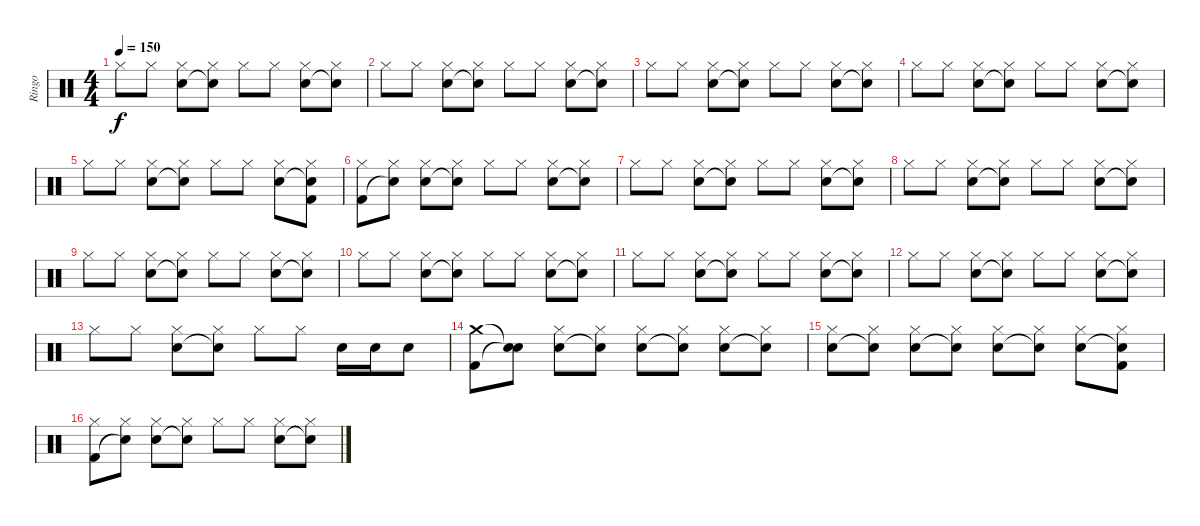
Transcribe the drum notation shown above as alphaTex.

\track ("Ringo" "Ringo") {instrument percussion}
\staff {score}
\articulation defaults
\ts (4 4)
\tempo 150
\clef neutral
\ks c "Hi-Hat (closed)".8{dy f} "Hi-Hat (closed)".8
("Hi-Hat (closed)" "Snare (hit) 2").8 ("Hi-Hat (closed)" "Snare (hit)"{t}).8 "Hi-Hat (closed)".8 "Hi-Hat (closed)".8 ("Hi-Hat (closed)" "Snare (hit) 2").8 ("Hi-Hat (closed)" "Snare (hit)"{t}).8 |
"Hi-Hat (closed)".8 "Hi-Hat (closed)".8 ("Hi-Hat (closed)" "Snare (hit) 2").8 ("Hi-Hat (closed)" "Snare (hit)"{t}).8 "Hi-Hat (closed)".8 "Hi-Hat (closed)".8 ("Hi-Hat (closed)" "Snare (hit) 2").8 ("Hi-Hat (closed)" "Snare (hit)"{t}).8 |
"Hi-Hat (closed)".8 "Hi-Hat (closed)".8 ("Hi-Hat (closed)" "Snare (hit) 2").8 ("Hi-Hat (closed)" "Snare (hit)"{t}).8 "Hi-Hat (closed)".8 "Hi-Hat (closed)".8 ("Hi-Hat (closed)" "Snare (hit) 2").8 ("Hi-Hat (closed)" "Snare (hit)"{t}).8 |
"Hi-Hat (closed)".8 "Hi-Hat (closed)".8 ("Hi-Hat (closed)" "Snare (hit) 2").8 ("Hi-Hat (closed)" "Snare (hit)"{t}).8 "Hi-Hat (closed)".8 "Hi-Hat (closed)".8 ("Hi-Hat (closed)" "Snare (hit) 2").8 ("Hi-Hat (closed)" "Snare (hit)"{t}).8 |
"Hi-Hat (closed)".8 "Hi-Hat (closed)".8 ("Hi-Hat (closed)" "Snare (hit) 2").8 ("Hi-Hat (closed)" "Snare (hit)"{t}).8 "Hi-Hat (closed)".8 "Hi-Hat (closed)".8 ("Hi-Hat (closed)" "Snare (hit) 2").8 ("Hi-Hat (closed)" "Snare (hit)"{t} "Kick (hit) 2").8 |
("Hi-Hat (closed)" "Kick (hit) 2").8 ("Hi-Hat (closed)" "Snare (hit)"{t}).8 ("Hi-Hat (closed)" "Snare (hit) 2").8 ("Hi-Hat (closed)" "Snare (hit)"{t}).8 "Hi-Hat (closed)".8 "Hi-Hat (closed)".8 ("Hi-Hat (closed)" "Snare (hit) 2").8 ("Hi-Hat (closed)" "Snare (hit)"{t}).8 |
"Hi-Hat (closed)".8 "Hi-Hat (closed)".8 ("Hi-Hat (closed)" "Snare (hit) 2").8 ("Hi-Hat (closed)" "Snare (hit)"{t}).8 "Hi-Hat (closed)".8 "Hi-Hat (closed)".8 ("Hi-Hat (closed)" "Snare (hit) 2").8 ("Hi-Hat (closed)" "Snare (hit)"{t}).8 |
"Hi-Hat (closed)".8 "Hi-Hat (closed)".8 ("Hi-Hat (closed)" "Snare (hit) 2").8 ("Hi-Hat (closed)" "Snare (hit)"{t}).8 "Hi-Hat (closed)".8 "Hi-Hat (closed)".8 ("Hi-Hat (closed)" "Snare (hit) 2").8 ("Hi-Hat (closed)" "Snare (hit)"{t}).8 |
"Hi-Hat (closed)".8 "Hi-Hat (closed)".8 ("Hi-Hat (closed)" "Snare (hit) 2").8 ("Hi-Hat (closed)" "Snare (hit)"{t}).8 "Hi-Hat (closed)".8 "Hi-Hat (closed)".8 ("Hi-Hat (closed)" "Snare (hit) 2").8 ("Hi-Hat (closed)" "Snare (hit)"{t}).8 |
"Hi-Hat (closed)".8 "Hi-Hat (closed)".8 ("Hi-Hat (closed)" "Snare (hit) 2").8 ("Hi-Hat (closed)" "Snare (hit)"{t}).8 "Hi-Hat (closed)".8 "Hi-Hat (closed)".8 ("Hi-Hat (closed)" "Snare (hit) 2").8 ("Hi-Hat (closed)" "Snare (hit)"{t}).8 |
"Hi-Hat (closed)".8 "Hi-Hat (closed)".8 ("Hi-Hat (closed)" "Snare (hit) 2").8 ("Hi-Hat (closed)" "Snare (hit)"{t}).8 "Hi-Hat (closed)".8 "Hi-Hat (closed)".8 ("Hi-Hat (closed)" "Snare (hit) 2").8 ("Hi-Hat (closed)" "Snare (hit)"{t}).8 |
"Hi-Hat (closed)".8 "Hi-Hat (closed)".8 ("Hi-Hat (closed)" "Snare (hit) 2").8 ("Hi-Hat (closed)" "Snare (hit)"{t}).8 "Hi-Hat (closed)".8 "Hi-Hat (closed)".8 ("Hi-Hat (closed)" "Snare (hit) 2").8 ("Hi-Hat (closed)" "Snare (hit)"{t}).8 |
"Hi-Hat (closed)".8 "Hi-Hat (closed)".8 ("Hi-Hat (closed)" "Snare (hit) 2").8 ("Hi-Hat (closed)" "Snare (hit)"{t}).8 "Hi-Hat (closed)".8 "Hi-Hat (closed)".8 "Snare (hit) 2".16 "Snare (hit) 2".16 "Snare (hit) 2".8 |
("Crash medium (hit)" "Kick (hit) 2").8 ("Snare (hit)"{t} "Snare (hit)"{t}).8 ("Hi-Hat (closed)" "Snare (hit) 2").8 ("Hi-Hat (closed)" "Snare (hit)"{t}).8 ("Hi-Hat (closed)" "Snare (hit) 2").8 ("Hi-Hat (closed)" "Snare (hit)"{t}).8 ("Hi-Hat (closed)" "Snare (hit) 2").8 ("Hi-Hat (closed)" "Snare (hit)"{t}).8 |
("Hi-Hat (closed)" "Snare (hit) 2").8 ("Hi-Hat (closed)" "Snare (hit)"{t}).8 ("Hi-Hat (closed)" "Snare (hit) 2").8 ("Hi-Hat (closed)" "Snare (hit)"{t}).8 ("Hi-Hat (closed)" "Snare (hit) 2").8 ("Hi-Hat (closed)" "Snare (hit)"{t}).8 ("Hi-Hat (closed)" "Snare (hit) 2").8 ("Hi-Hat (closed)" "Snare (hit)"{t} "Kick (hit) 2").8 |
("Hi-Hat (closed)" "Kick (hit) 2").8 ("Hi-Hat (closed)" "Snare (hit)"{t}).8 ("Hi-Hat (closed)" "Snare (hit) 2").8 ("Hi-Hat (closed)" "Snare (hit)"{t}).8 "Hi-Hat (closed)".8 "Hi-Hat (closed)".8 ("Hi-Hat (closed)" "Snare (hit) 2").8 ("Hi-Hat (closed)" "Snare (hit)"{t}).8
